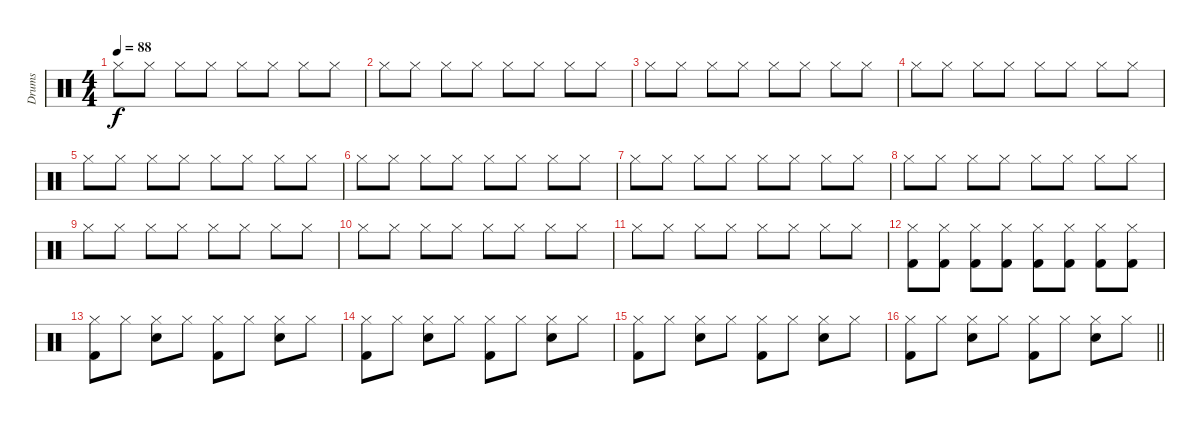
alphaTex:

\track ("Drums" "Drums") {instrument percussion}
\staff {score}
\articulation defaults
\ts (4 4)
\tempo 88
\clef neutral
\ks c "Hi-Hat (closed)".8{dy f} "Hi-Hat (closed)".8 "Hi-Hat (closed)".8 "Hi-Hat (closed)".8 "Hi-Hat (closed)".8 "Hi-Hat (closed)".8 "Hi-Hat (closed)".8 "Hi-Hat (closed)".8
|
"Hi-Hat (closed)".8 "Hi-Hat (closed)".8 "Hi-Hat (closed)".8 "Hi-Hat (closed)".8 "Hi-Hat (closed)".8 "Hi-Hat (closed)".8 "Hi-Hat (closed)".8 "Hi-Hat (closed)".8 |
"Hi-Hat (closed)".8 "Hi-Hat (closed)".8 "Hi-Hat (closed)".8 "Hi-Hat (closed)".8 "Hi-Hat (closed)".8 "Hi-Hat (closed)".8 "Hi-Hat (closed)".8 "Hi-Hat (closed)".8 |
"Hi-Hat (closed)".8 "Hi-Hat (closed)".8 "Hi-Hat (closed)".8 "Hi-Hat (closed)".8 "Hi-Hat (closed)".8 "Hi-Hat (closed)".8 "Hi-Hat (closed)".8 "Hi-Hat (closed)".8 |
"Hi-Hat (closed)".8 "Hi-Hat (closed)".8 "Hi-Hat (closed)".8 "Hi-Hat (closed)".8 "Hi-Hat (closed)".8 "Hi-Hat (closed)".8 "Hi-Hat (closed)".8 "Hi-Hat (closed)".8 |
"Hi-Hat (closed)".8 "Hi-Hat (closed)".8 "Hi-Hat (closed)".8 "Hi-Hat (closed)".8 "Hi-Hat (closed)".8 "Hi-Hat (closed)".8 "Hi-Hat (closed)".8 "Hi-Hat (closed)".8 |
"Hi-Hat (closed)".8 "Hi-Hat (closed)".8 "Hi-Hat (closed)".8 "Hi-Hat (closed)".8 "Hi-Hat (closed)".8 "Hi-Hat (closed)".8 "Hi-Hat (closed)".8 "Hi-Hat (closed)".8 |
"Hi-Hat (closed)".8 "Hi-Hat (closed)".8 "Hi-Hat (closed)".8 "Hi-Hat (closed)".8 "Hi-Hat (closed)".8 "Hi-Hat (closed)".8 "Hi-Hat (closed)".8 "Hi-Hat (closed)".8 |
"Hi-Hat (closed)".8 "Hi-Hat (closed)".8 "Hi-Hat (closed)".8 "Hi-Hat (closed)".8 "Hi-Hat (closed)".8 "Hi-Hat (closed)".8 "Hi-Hat (closed)".8 "Hi-Hat (closed)".8 |
"Hi-Hat (closed)".8 "Hi-Hat (closed)".8 "Hi-Hat (closed)".8 "Hi-Hat (closed)".8 "Hi-Hat (closed)".8 "Hi-Hat (closed)".8 "Hi-Hat (closed)".8 "Hi-Hat (closed)".8 |
"Hi-Hat (closed)".8 "Hi-Hat (closed)".8 "Hi-Hat (closed)".8 "Hi-Hat (closed)".8 "Hi-Hat (closed)".8 "Hi-Hat (closed)".8 "Hi-Hat (closed)".8 "Hi-Hat (closed)".8 |
("Hi-Hat (closed)" "Kick (hit) 2").8 ("Hi-Hat (closed)" "Kick (hit) 2").8 ("Hi-Hat (closed)" "Kick (hit) 2").8 ("Hi-Hat (closed)" "Kick (hit) 2").8 ("Hi-Hat (closed)" "Kick (hit) 2").8 ("Hi-Hat (closed)" "Kick (hit) 2").8 ("Hi-Hat (closed)" "Kick (hit) 2").8 ("Hi-Hat (closed)" "Kick (hit) 2").8 |
("Hi-Hat (closed)" "Kick (hit) 2").8 "Hi-Hat (closed)".8 ("Hi-Hat (closed)" "Snare (hit) 2").8 "Hi-Hat (closed)".8 ("Hi-Hat (closed)" "Kick (hit) 2").8 "Hi-Hat (closed)".8 ("Hi-Hat (closed)" "Snare (hit) 2").8 "Hi-Hat (closed)".8 |
("Hi-Hat (closed)" "Kick (hit) 2").8 "Hi-Hat (closed)".8 ("Hi-Hat (closed)" "Snare (hit) 2").8 "Hi-Hat (closed)".8 ("Hi-Hat (closed)" "Kick (hit) 2").8 "Hi-Hat (closed)".8 ("Hi-Hat (closed)" "Snare (hit) 2").8 "Hi-Hat (closed)".8 |
("Hi-Hat (closed)" "Kick (hit) 2").8 "Hi-Hat (closed)".8 ("Hi-Hat (closed)" "Snare (hit) 2").8 "Hi-Hat (closed)".8 ("Hi-Hat (closed)" "Kick (hit) 2").8 "Hi-Hat (closed)".8 ("Hi-Hat (closed)" "Snare (hit) 2").8 "Hi-Hat (closed)".8 |
\barLineRight lightlight
("Hi-Hat (closed)" "Kick (hit) 2").8 "Hi-Hat (closed)".8 ("Hi-Hat (closed)" "Snare (hit) 2").8 "Hi-Hat (closed)".8 ("Hi-Hat (closed)" "Kick (hit) 2").8 "Hi-Hat (closed)".8 ("Hi-Hat (closed)" "Snare (hit) 2").8 "Hi-Hat (closed)".8
